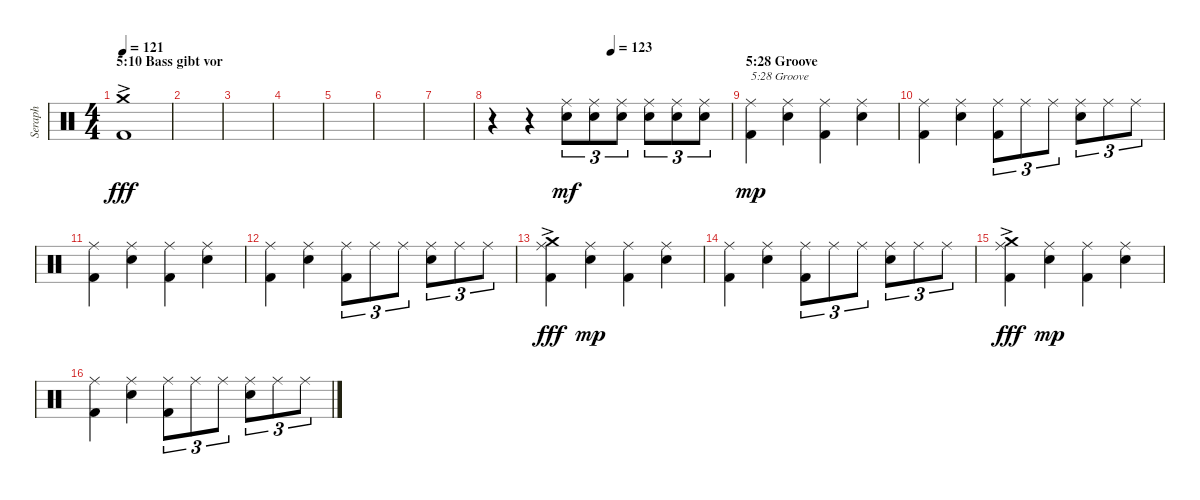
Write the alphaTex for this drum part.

\track ("Seraph" "Seraph") {instrument percussion}
\staff {score}
\articulation defaults
\ts (4 4)
\section ("" "5:10 Bass gibt vor")
\tempo 121
\clef neutral
\ks c
("Kick (hit) 2" "Crash medium (hit)"{ac}).1{dy fff} |
|
|
|
|
|
|
\tempo (123 0.5)
r.4 r.4 ("Electric Snare (hit)" "Ride (middle)").8{tu (3 2) dy mf} ("Electric Snare (hit)" "Ride (middle)").8{tu (3 2)} ("Electric Snare (hit)" "Ride (middle)").8{tu (3 2)} ("Electric Snare (hit)" "Ride (middle)").8{tu (3 2)} ("Electric Snare (hit)" "Ride (middle)").8{tu (3 2)} ("Electric Snare (hit)" "Ride (middle)").8{tu (3 2)} |
\section ("" "5:28 Groove ")
("Kick (hit) 2" "Ride (middle)").4{txt "5:28 Groove " dy mp} ("Electric Snare (hit)" "Ride (middle)").4 ("Kick (hit) 2" "Ride (middle)").4 ("Electric Snare (hit)" "Ride (middle)").4 |
("Kick (hit) 2" "Ride (middle)").4 ("Electric Snare (hit)" "Ride (middle)").4 ("Kick (hit) 2" "Ride (middle)").8{tu (3 2)} "Ride (middle)".8{tu (3 2)} "Ride (middle)".8{tu (3 2)} ("Electric Snare (hit)" "Ride (middle)").8{tu (3 2)} "Ride (middle)".8{tu (3 2)} "Ride (middle)".8{tu (3 2)} |
("Kick (hit) 2" "Ride (middle)").4 ("Electric Snare (hit)" "Ride (middle)").4 ("Kick (hit) 2" "Ride (middle)").4 ("Electric Snare (hit)" "Ride (middle)").4 |
("Kick (hit) 2" "Ride (middle)").4 ("Electric Snare (hit)" "Ride (middle)").4 ("Kick (hit) 2" "Ride (middle)").8{tu (3 2)} "Ride (middle)".8{tu (3 2)} "Ride (middle)".8{tu (3 2)} ("Electric Snare (hit)" "Ride (middle)").8{tu (3 2)} "Ride (middle)".8{tu (3 2)} "Ride (middle)".8{tu (3 2)} |
("Kick (hit) 2" "Ride (middle)" "Crash medium (hit)"{ac}).4{dy fff} ("Electric Snare (hit)" "Ride (middle)").4{dy mp} ("Kick (hit) 2" "Ride (middle)").4 ("Electric Snare (hit)" "Ride (middle)").4 |
("Kick (hit) 2" "Ride (middle)").4 ("Electric Snare (hit)" "Ride (middle)").4 ("Kick (hit) 2" "Ride (middle)").8{tu (3 2)} "Ride (middle)".8{tu (3 2)} "Ride (middle)".8{tu (3 2)} ("Electric Snare (hit)" "Ride (middle)").8{tu (3 2)} "Ride (middle)".8{tu (3 2)} "Ride (middle)".8{tu (3 2)} |
("Kick (hit) 2" "Ride (middle)" "Crash medium (hit)"{ac}).4{dy fff} ("Electric Snare (hit)" "Ride (middle)").4{dy mp} ("Kick (hit) 2" "Ride (middle)").4 ("Electric Snare (hit)" "Ride (middle)").4 |
("Kick (hit) 2" "Ride (middle)").4 ("Electric Snare (hit)" "Ride (middle)").4 ("Kick (hit) 2" "Ride (middle)").8{tu (3 2)} "Ride (middle)".8{tu (3 2)} "Ride (middle)".8{tu (3 2)} ("Electric Snare (hit)" "Ride (middle)").8{tu (3 2)} "Ride (middle)".8{tu (3 2)} "Ride (middle)".8{tu (3 2)}
